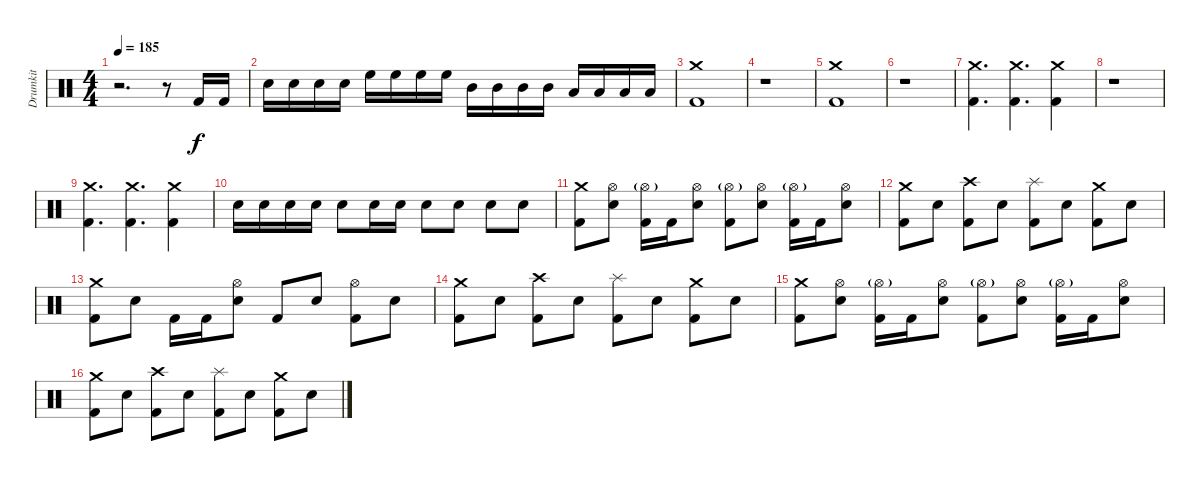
\track ("Drumkit" "Drumkit") {instrument percussion}
\staff {score}
\articulation defaults
\ts (4 4)
\tempo 185
\clef neutral
\ks c
r.2{d dy f} r.8 "Kick (hit) 2".16 "Kick (hit) 2".16 |
"Snare (hit) 2".16 "Snare (hit) 2".16 "Snare (hit) 2".16 "Snare (hit) 2".16 "High Floor Tom (hit)".16 "High Floor Tom (hit)".16 "High Floor Tom (hit)".16 "High Floor Tom (hit)".16 "Mid Tom (hit)".16 "Mid Tom (hit)".16 "Mid Tom (hit)".16 "Mid Tom (hit)".16 "Low Tom (hit)".16 "Low Tom (hit)".16 "Low Tom (hit)".16 "Low Tom (hit)".16 |
("Crash medium (hit)" "Kick (hit) 2").1 |
r.1 |
("Crash medium (hit)" "Kick (hit) 2").1 |
r.1 |
("Crash medium (hit)" "Kick (hit) 2").4{d} ("Crash medium (hit)" "Kick (hit) 2").4{d} ("Crash medium (hit)" "Kick (hit) 2").4 |
r.1 |
("Crash medium (hit)" "Kick (hit) 2").4{d} ("Crash medium (hit)" "Kick (hit) 2").4{d} ("Crash medium (hit)" "Kick (hit) 2").4 |
"Snare (hit) 2".16 "Snare (hit) 2".16 "Snare (hit) 2".16 "Snare (hit) 2".16 "Snare (hit) 2".8 "Snare (hit) 2".16 "Snare (hit) 2".16 "Snare (hit) 2".8 "Snare (hit) 2".8 "Snare (hit) 2".8 "Snare (hit) 2".8 |
("Crash medium (hit)" "Kick (hit) 2").8 ("Hi-Hat (open)" "Snare (hit) 2").8 ("Hi-Hat (open)"{g} "Kick (hit) 2").16 "Kick (hit) 2".16 ("Hi-Hat (open)" "Snare (hit) 2").8 ("Hi-Hat (open)"{g} "Kick (hit) 2").8 ("Hi-Hat (open)" "Snare (hit) 2").8 ("Hi-Hat (open)"{g} "Kick (hit) 2").16 "Kick (hit) 2".16 ("Hi-Hat (open)" "Snare (hit) 2").8 |
("Crash medium (hit)" "Kick (hit) 2").8 "Snare (hit) 2".8 ("Crash high (hit)" "Kick (hit) 2").8 "Snare (hit) 2".8 ("Splash (hit)" "Kick (hit) 2").8 "Snare (hit) 2".8 ("Crash medium (hit)" "Kick (hit) 2").8 "Snare (hit) 2".8 |
("Crash medium (hit)" "Kick (hit) 2").8 "Snare (hit) 2".8 "Kick (hit) 2".16 "Kick (hit) 2".16 ("Hi-Hat (open)" "Snare (hit) 2").8 "Kick (hit) 2".8 "Snare (hit) 2".8 ("Hi-Hat (open)" "Kick (hit) 2").8 "Snare (hit) 2".8 |
("Crash medium (hit)" "Kick (hit) 2").8 "Snare (hit) 2".8 ("Crash high (hit)" "Kick (hit) 2").8 "Snare (hit) 2".8 ("Splash (hit)" "Kick (hit) 2").8 "Snare (hit) 2".8 ("Crash medium (hit)" "Kick (hit) 2").8 "Snare (hit) 2".8 |
("Crash medium (hit)" "Kick (hit) 2").8 ("Hi-Hat (open)" "Snare (hit) 2").8 ("Hi-Hat (open)"{g} "Kick (hit) 2").16 "Kick (hit) 2".16 ("Hi-Hat (open)" "Snare (hit) 2").8 ("Hi-Hat (open)"{g} "Kick (hit) 2").8 ("Hi-Hat (open)" "Snare (hit) 2").8 ("Hi-Hat (open)"{g} "Kick (hit) 2").16 "Kick (hit) 2".16 ("Hi-Hat (open)" "Snare (hit) 2").8 |
("Crash medium (hit)" "Kick (hit) 2").8 "Snare (hit) 2".8 ("Crash high (hit)" "Kick (hit) 2").8 "Snare (hit) 2".8 ("Splash (hit)" "Kick (hit) 2").8 "Snare (hit) 2".8 ("Crash medium (hit)" "Kick (hit) 2").8 "Snare (hit) 2".8
